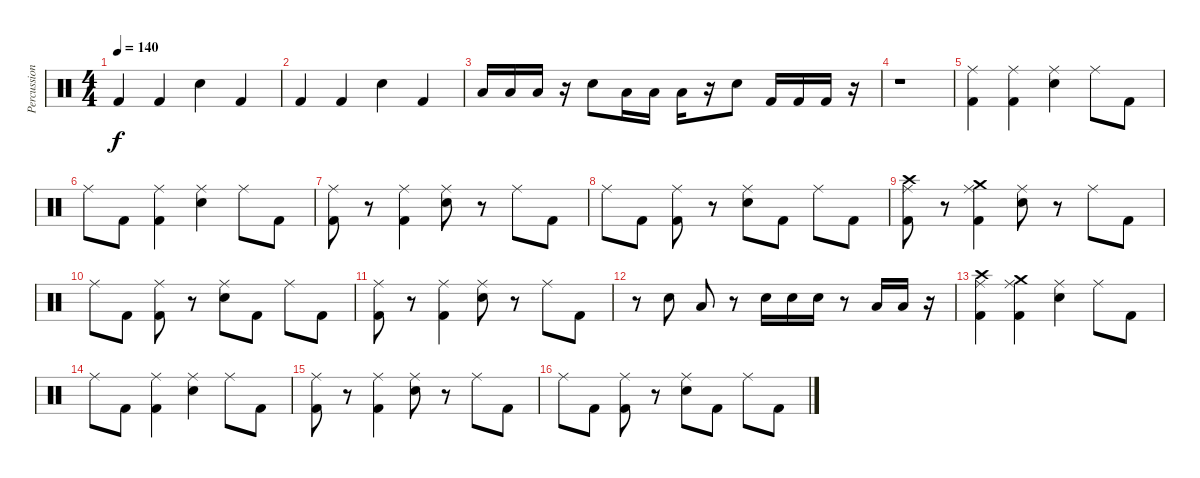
\track ("Percussion" "Percussion") {instrument percussion}
\staff {score}
\articulation defaults
\ts (4 4)
\tempo 140
\clef neutral
\ks c "Kick (hit) 2".4{dy f} "Kick (hit) 2".4 "Snare (hit) 2".4 "Kick (hit) 2".4
|
"Kick (hit) 2".4 "Kick (hit) 2".4 "Snare (hit) 2".4 "Kick (hit) 2".4 |
"Low Tom (hit)".16 "Low Tom (hit)".16 "Low Tom (hit)".16 r.16 "Snare (hit) 2".8 "Low Floor Tom (hit)".16 "Low Floor Tom (hit)".16 "Low Floor Tom (hit)".16 r.16 "Snare (hit) 2".8 "Kick (hit) 2".16 "Kick (hit) 2".16 "Kick (hit) 2".16 r.16 |
r.1 |
("Kick (hit) 2" "Ride (middle)").4 ("Kick (hit) 2" "Ride (middle)").4 ("Snare (hit) 2" "Ride (middle)").4 "Ride (middle)".8 "Kick (hit) 2".8 |
"Ride (middle)".8 "Kick (hit) 2".8 ("Kick (hit) 2" "Ride (middle)").4 ("Snare (hit) 2" "Ride (middle)").4 "Ride (middle)".8 "Kick (hit) 2".8 |
("Kick (hit) 2" "Ride (middle)").8 r.8 ("Kick (hit) 2" "Ride (middle)").4 ("Snare (hit) 2" "Ride (middle)").8 r.8 "Ride (middle)".8 "Kick (hit) 2".8 |
"Ride (middle)".8 "Kick (hit) 2".8 ("Kick (hit) 2" "Ride (middle)").8 r.8 ("Snare (hit) 2" "Ride (middle)").8 "Kick (hit) 2".8 "Ride (middle)".8 "Kick (hit) 2".8 |
("Kick (hit) 2" "Ride (middle)" "Crash high (hit)").8 r.8 ("Kick (hit) 2" "Ride (middle)" "Crash medium (hit)").4 ("Snare (hit) 2" "Ride (middle)").8 r.8 "Ride (middle)".8 "Kick (hit) 2".8 |
"Ride (middle)".8 "Kick (hit) 2".8 ("Kick (hit) 2" "Ride (middle)").8 r.8 ("Snare (hit) 2" "Ride (middle)").8 "Kick (hit) 2".8 "Ride (middle)".8 "Kick (hit) 2".8 |
("Kick (hit) 2" "Ride (middle)").8 r.8 ("Kick (hit) 2" "Ride (middle)").4 ("Snare (hit) 2" "Ride (middle)").8 r.8 "Ride (middle)".8 "Kick (hit) 2".8 |
r.8 "Snare (hit) 2".8 "Low Floor Tom (hit)".8 r.8 "Snare (hit) 2".16 "Snare (hit) 2".16 "Snare (hit) 2".16 r.8 "Low Floor Tom (hit)".16 "Low Floor Tom (hit)".16 r.16 |
("Kick (hit) 2" "Ride (middle)" "Crash high (hit)").4 ("Kick (hit) 2" "Ride (middle)" "Crash medium (hit)").4 ("Snare (hit) 2" "Ride (middle)").4 "Ride (middle)".8 "Kick (hit) 2".8 |
"Ride (middle)".8 "Kick (hit) 2".8 ("Kick (hit) 2" "Ride (middle)").4 ("Snare (hit) 2" "Ride (middle)").4 "Ride (middle)".8 "Kick (hit) 2".8 |
("Kick (hit) 2" "Ride (middle)").8 r.8 ("Kick (hit) 2" "Ride (middle)").4 ("Snare (hit) 2" "Ride (middle)").8 r.8 "Ride (middle)".8 "Kick (hit) 2".8 |
"Ride (middle)".8 "Kick (hit) 2".8 ("Kick (hit) 2" "Ride (middle)").8 r.8 ("Snare (hit) 2" "Ride (middle)").8 "Kick (hit) 2".8 "Ride (middle)".8 "Kick (hit) 2".8
